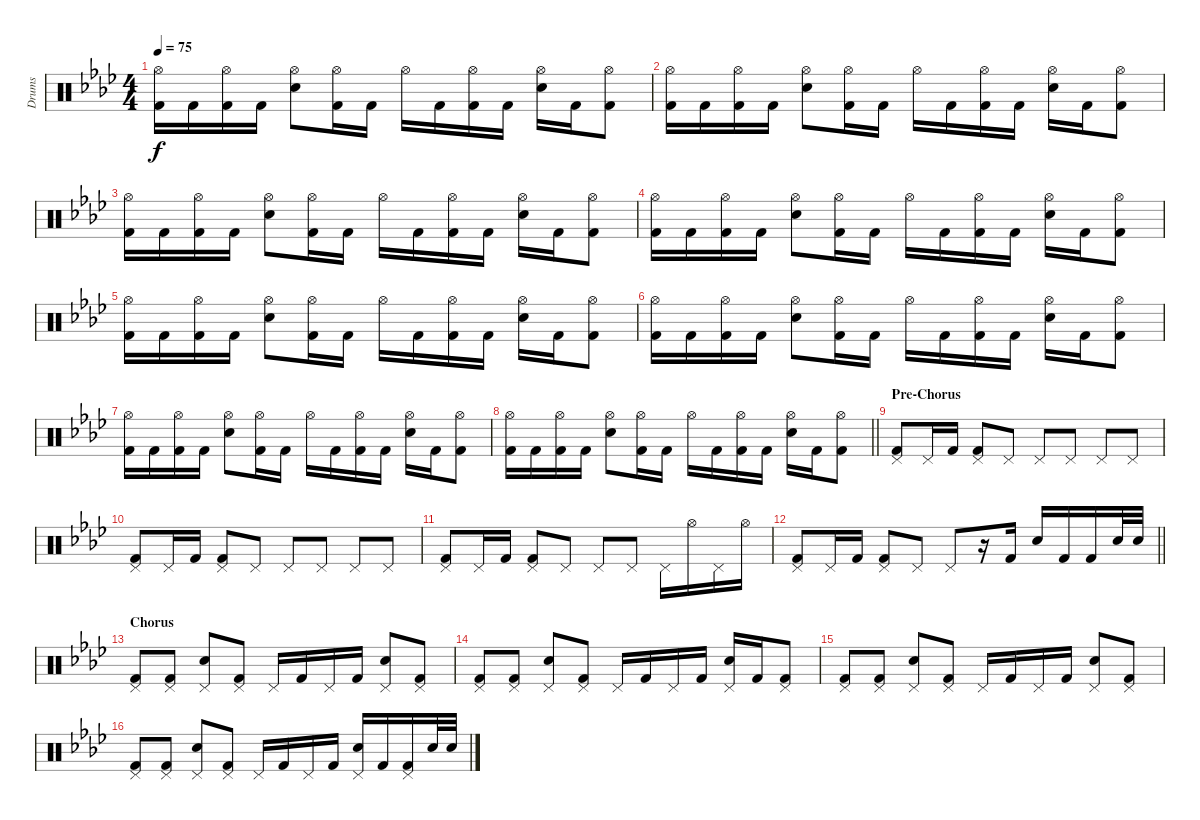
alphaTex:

\track ("Drums" "Drums") {instrument percussion}
\staff {score}
\articulation defaults
\ts (4 4)
\tempo 75
\clef neutral
\ks ab
("Hi-Hat (open)" "Kick (hit) 2").16{dy f} "Kick (hit) 2".16 ("Hi-Hat (open)" "Kick (hit) 2").16 "Kick (hit) 2".16 ("Hi-Hat (open)" "Snare (hit) 2").8 ("Hi-Hat (open)" "Kick (hit) 2").16 "Kick (hit) 2".16 "Hi-Hat (open)".16 "Kick (hit) 2".16 ("Hi-Hat (open)" "Kick (hit) 2").16 "Kick (hit) 2".16 ("Hi-Hat (open)" "Snare (hit) 2").16 "Kick (hit) 2".16 ("Hi-Hat (open)" "Kick (hit) 2").8 |
("Hi-Hat (open)" "Kick (hit) 2").16 "Kick (hit) 2".16 ("Hi-Hat (open)" "Kick (hit) 2").16 "Kick (hit) 2".16 ("Hi-Hat (open)" "Snare (hit) 2").8 ("Hi-Hat (open)" "Kick (hit) 2").16 "Kick (hit) 2".16 "Hi-Hat (open)".16 "Kick (hit) 2".16 ("Hi-Hat (open)" "Kick (hit) 2").16 "Kick (hit) 2".16 ("Hi-Hat (open)" "Snare (hit) 2").16 "Kick (hit) 2".16 ("Hi-Hat (open)" "Kick (hit) 2").8 |
("Hi-Hat (open)" "Kick (hit) 2").16 "Kick (hit) 2".16 ("Hi-Hat (open)" "Kick (hit) 2").16 "Kick (hit) 2".16 ("Hi-Hat (open)" "Snare (hit) 2").8 ("Hi-Hat (open)" "Kick (hit) 2").16 "Kick (hit) 2".16 "Hi-Hat (open)".16 "Kick (hit) 2".16 ("Hi-Hat (open)" "Kick (hit) 2").16 "Kick (hit) 2".16 ("Hi-Hat (open)" "Snare (hit) 2").16 "Kick (hit) 2".16 ("Hi-Hat (open)" "Kick (hit) 2").8 |
("Hi-Hat (open)" "Kick (hit) 2").16 "Kick (hit) 2".16 ("Hi-Hat (open)" "Kick (hit) 2").16 "Kick (hit) 2".16 ("Hi-Hat (open)" "Snare (hit) 2").8 ("Hi-Hat (open)" "Kick (hit) 2").16 "Kick (hit) 2".16 "Hi-Hat (open)".16 "Kick (hit) 2".16 ("Hi-Hat (open)" "Kick (hit) 2").16 "Kick (hit) 2".16 ("Hi-Hat (open)" "Snare (hit) 2").16 "Kick (hit) 2".16 ("Hi-Hat (open)" "Kick (hit) 2").8 |
("Hi-Hat (open)" "Kick (hit) 2").16 "Kick (hit) 2".16 ("Hi-Hat (open)" "Kick (hit) 2").16 "Kick (hit) 2".16 ("Hi-Hat (open)" "Snare (hit) 2").8 ("Hi-Hat (open)" "Kick (hit) 2").16 "Kick (hit) 2".16 "Hi-Hat (open)".16 "Kick (hit) 2".16 ("Hi-Hat (open)" "Kick (hit) 2").16 "Kick (hit) 2".16 ("Hi-Hat (open)" "Snare (hit) 2").16 "Kick (hit) 2".16 ("Hi-Hat (open)" "Kick (hit) 2").8 |
("Hi-Hat (open)" "Kick (hit) 2").16 "Kick (hit) 2".16 ("Hi-Hat (open)" "Kick (hit) 2").16 "Kick (hit) 2".16 ("Hi-Hat (open)" "Snare (hit) 2").8 ("Hi-Hat (open)" "Kick (hit) 2").16 "Kick (hit) 2".16 "Hi-Hat (open)".16 "Kick (hit) 2".16 ("Hi-Hat (open)" "Kick (hit) 2").16 "Kick (hit) 2".16 ("Hi-Hat (open)" "Snare (hit) 2").16 "Kick (hit) 2".16 ("Hi-Hat (open)" "Kick (hit) 2").8 |
("Hi-Hat (open)" "Kick (hit) 2").16 "Kick (hit) 2".16 ("Hi-Hat (open)" "Kick (hit) 2").16 "Kick (hit) 2".16 ("Hi-Hat (open)" "Snare (hit) 2").8 ("Hi-Hat (open)" "Kick (hit) 2").16 "Kick (hit) 2".16 "Hi-Hat (open)".16 "Kick (hit) 2".16 ("Hi-Hat (open)" "Kick (hit) 2").16 "Kick (hit) 2".16 ("Hi-Hat (open)" "Snare (hit) 2").16 "Kick (hit) 2".16 ("Hi-Hat (open)" "Kick (hit) 2").8 |
\barLineRight lightlight
("Hi-Hat (open)" "Kick (hit) 2").16 "Kick (hit) 2".16 ("Hi-Hat (open)" "Kick (hit) 2").16 "Kick (hit) 2".16 ("Hi-Hat (open)" "Snare (hit) 2").8 ("Hi-Hat (open)" "Kick (hit) 2").16 "Kick (hit) 2".16 "Hi-Hat (open)".16 "Kick (hit) 2".16 ("Hi-Hat (open)" "Kick (hit) 2").16 "Kick (hit) 2".16 ("Hi-Hat (open)" "Snare (hit) 2").16 "Kick (hit) 2".16 ("Hi-Hat (open)" "Kick (hit) 2").8 |
\section ("" "Pre-Chorus")
("Pedal Hi-Hat (hit)" "Kick (hit) 2").8 "Pedal Hi-Hat (hit)".16 "Kick (hit) 2".16 ("Pedal Hi-Hat (hit)" "Kick (hit) 2").8 "Pedal Hi-Hat (hit)".8 "Pedal Hi-Hat (hit)".8 "Pedal Hi-Hat (hit)".8 "Pedal Hi-Hat (hit)".8 "Pedal Hi-Hat (hit)".8 |
("Pedal Hi-Hat (hit)" "Kick (hit) 2").8 "Pedal Hi-Hat (hit)".16 "Kick (hit) 2".16 ("Pedal Hi-Hat (hit)" "Kick (hit) 2").8 "Pedal Hi-Hat (hit)".8 "Pedal Hi-Hat (hit)".8 "Pedal Hi-Hat (hit)".8 "Pedal Hi-Hat (hit)".8 "Pedal Hi-Hat (hit)".8 |
("Pedal Hi-Hat (hit)" "Kick (hit) 2").8 "Pedal Hi-Hat (hit)".16 "Kick (hit) 2".16 ("Pedal Hi-Hat (hit)" "Kick (hit) 2").8 "Pedal Hi-Hat (hit)".8 "Pedal Hi-Hat (hit)".8 "Pedal Hi-Hat (hit)".8 "Pedal Hi-Hat (hit)".16 "Hi-Hat (open)".16 "Pedal Hi-Hat (hit)".16 "Hi-Hat (open)".16 |
\barLineRight lightlight
("Pedal Hi-Hat (hit)" "Kick (hit) 2").8 "Pedal Hi-Hat (hit)".16 "Kick (hit) 2".16 ("Pedal Hi-Hat (hit)" "Kick (hit) 2").8 "Pedal Hi-Hat (hit)".8 "Pedal Hi-Hat (hit)".8 r.16 "Kick (hit) 2".16 "Snare (hit) 2".16 "Kick (hit) 2".16 "Kick (hit) 2".16 "Snare (hit) 2".32 "Snare (hit) 2".32 |
\section ("" "Chorus")
("Pedal Hi-Hat (hit)" "Kick (hit) 2").8 ("Pedal Hi-Hat (hit)" "Kick (hit) 2").8 ("Pedal Hi-Hat (hit)" "Snare (hit) 2").8 ("Pedal Hi-Hat (hit)" "Kick (hit) 2").8 "Pedal Hi-Hat (hit)".16 "Kick (hit) 2".16 "Pedal Hi-Hat (hit)".16 "Kick (hit) 2".16 ("Pedal Hi-Hat (hit)" "Snare (hit) 2").8 ("Pedal Hi-Hat (hit)" "Kick (hit) 2").8 |
("Pedal Hi-Hat (hit)" "Kick (hit) 2").8 ("Pedal Hi-Hat (hit)" "Kick (hit) 2").8 ("Pedal Hi-Hat (hit)" "Snare (hit) 2").8 ("Pedal Hi-Hat (hit)" "Kick (hit) 2").8 "Pedal Hi-Hat (hit)".16 "Kick (hit) 2".16 "Pedal Hi-Hat (hit)".16 "Kick (hit) 2".16 ("Pedal Hi-Hat (hit)" "Snare (hit) 2").16 "Kick (hit) 2".16 ("Pedal Hi-Hat (hit)" "Kick (hit) 2").8 |
("Pedal Hi-Hat (hit)" "Kick (hit) 2").8 ("Pedal Hi-Hat (hit)" "Kick (hit) 2").8 ("Pedal Hi-Hat (hit)" "Snare (hit) 2").8 ("Pedal Hi-Hat (hit)" "Kick (hit) 2").8 "Pedal Hi-Hat (hit)".16 "Kick (hit) 2".16 "Pedal Hi-Hat (hit)".16 "Kick (hit) 2".16 ("Pedal Hi-Hat (hit)" "Snare (hit) 2").8 ("Pedal Hi-Hat (hit)" "Kick (hit) 2").8 |
("Pedal Hi-Hat (hit)" "Kick (hit) 2").8 ("Pedal Hi-Hat (hit)" "Kick (hit) 2").8 ("Pedal Hi-Hat (hit)" "Snare (hit) 2").8 ("Pedal Hi-Hat (hit)" "Kick (hit) 2").8 "Pedal Hi-Hat (hit)".16 "Kick (hit) 2".16 "Pedal Hi-Hat (hit)".16 "Kick (hit) 2".16 ("Pedal Hi-Hat (hit)" "Snare (hit) 2").16 "Kick (hit) 2".16 ("Pedal Hi-Hat (hit)" "Kick (hit) 2").16 "Snare (hit) 2".32 "Snare (hit) 2".32
